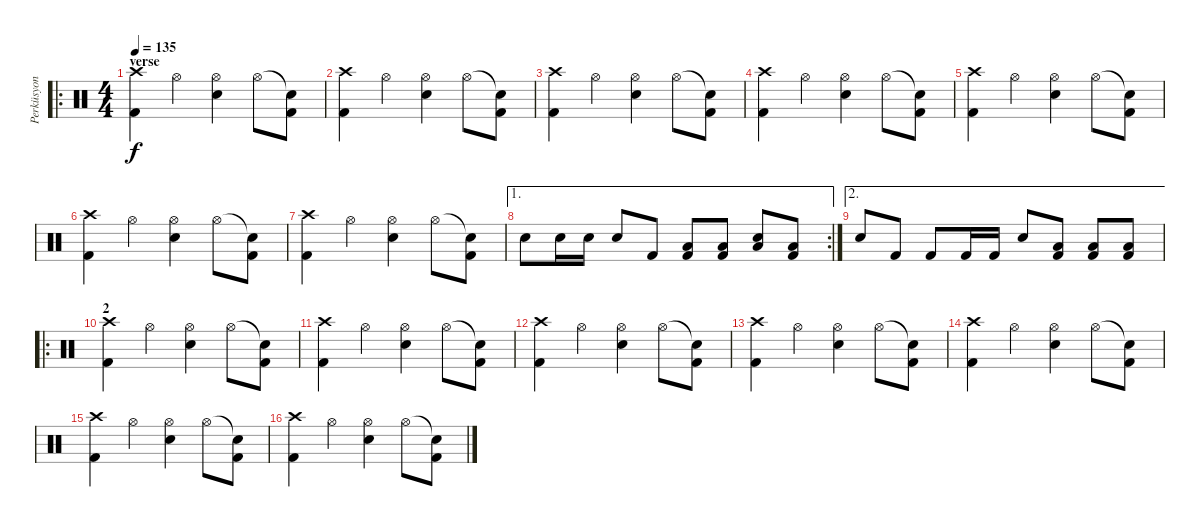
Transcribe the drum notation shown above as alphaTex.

\track ("Perküsyon" "Perküsyon") {instrument percussion}
\staff {score}
\articulation defaults
\ro
\ts (4 4)
\section ("" "verse")
\tempo 135
\clef neutral
\ks c
("Crash high (hit)" "Kick (hit) 2").4{dy f} "Hi-Hat (open)".4 ("Hi-Hat (open)" "Snare (hit) 2").4 "Hi-Hat (open)".8 ("Snare (hit)"{t} "Kick (hit) 2").8 |
("Crash high (hit)" "Kick (hit) 2").4 "Hi-Hat (open)".4 ("Hi-Hat (open)" "Snare (hit) 2").4 "Hi-Hat (open)".8 ("Snare (hit)"{t} "Kick (hit) 2").8 |
("Crash high (hit)" "Kick (hit) 2").4 "Hi-Hat (open)".4 ("Hi-Hat (open)" "Snare (hit) 2").4 "Hi-Hat (open)".8 ("Snare (hit)"{t} "Kick (hit) 2").8 |
("Crash high (hit)" "Kick (hit) 2").4 "Hi-Hat (open)".4 ("Hi-Hat (open)" "Snare (hit) 2").4 "Hi-Hat (open)".8 ("Snare (hit)"{t} "Kick (hit) 2").8 |
("Crash high (hit)" "Kick (hit) 2").4 "Hi-Hat (open)".4 ("Hi-Hat (open)" "Snare (hit) 2").4 "Hi-Hat (open)".8 ("Snare (hit)"{t} "Kick (hit) 2").8 |
("Crash high (hit)" "Kick (hit) 2").4 "Hi-Hat (open)".4 ("Hi-Hat (open)" "Snare (hit) 2").4 "Hi-Hat (open)".8 ("Snare (hit)"{t} "Kick (hit) 2").8 |
("Crash high (hit)" "Kick (hit) 2").4 "Hi-Hat (open)".4 ("Hi-Hat (open)" "Snare (hit) 2").4 "Hi-Hat (open)".8 ("Snare (hit)"{t} "Kick (hit) 2").8 |
\ae 1
\rc 2 "Snare (hit) 2".8 "Snare (hit) 2".16 "Snare (hit) 2".16 "Snare (hit) 2".8 "Kick (hit) 2".8
("Kick (hit) 2" "Low Tom (hit)").8 ("Kick (hit) 2" "Low Tom (hit)").8 ("Snare (hit) 2" "Low Tom (hit)").8 ("Kick (hit) 2" "Low Tom (hit)").8 |
\ae 2 "Snare (hit) 2".8 "Kick (hit) 2".8 "Kick (hit) 2".8 "Kick (hit) 2".16 "Kick (hit) 2".16 "Snare (hit) 2".8
("Kick (hit) 2" "Low Tom (hit)").8 ("Kick (hit) 2" "Low Tom (hit)").8 ("Kick (hit) 2" "Low Tom (hit)").8 |
\ro
\section ("" "2")
("Crash high (hit)" "Kick (hit) 2").4 "Hi-Hat (open)".4 ("Hi-Hat (open)" "Snare (hit) 2").4 "Hi-Hat (open)".8 ("Snare (hit)"{t} "Kick (hit) 2").8 |
("Crash high (hit)" "Kick (hit) 2").4 "Hi-Hat (open)".4 ("Hi-Hat (open)" "Snare (hit) 2").4 "Hi-Hat (open)".8 ("Snare (hit)"{t} "Kick (hit) 2").8 |
("Crash high (hit)" "Kick (hit) 2").4 "Hi-Hat (open)".4 ("Hi-Hat (open)" "Snare (hit) 2").4 "Hi-Hat (open)".8 ("Snare (hit)"{t} "Kick (hit) 2").8 |
("Crash high (hit)" "Kick (hit) 2").4 "Hi-Hat (open)".4 ("Hi-Hat (open)" "Snare (hit) 2").4 "Hi-Hat (open)".8 ("Snare (hit)"{t} "Kick (hit) 2").8 |
("Crash high (hit)" "Kick (hit) 2").4 "Hi-Hat (open)".4 ("Hi-Hat (open)" "Snare (hit) 2").4 "Hi-Hat (open)".8 ("Snare (hit)"{t} "Kick (hit) 2").8 |
("Crash high (hit)" "Kick (hit) 2").4 "Hi-Hat (open)".4 ("Hi-Hat (open)" "Snare (hit) 2").4 "Hi-Hat (open)".8 ("Snare (hit)"{t} "Kick (hit) 2").8 |
("Crash high (hit)" "Kick (hit) 2").4 "Hi-Hat (open)".4 ("Hi-Hat (open)" "Snare (hit) 2").4 "Hi-Hat (open)".8 ("Snare (hit)"{t} "Kick (hit) 2").8
